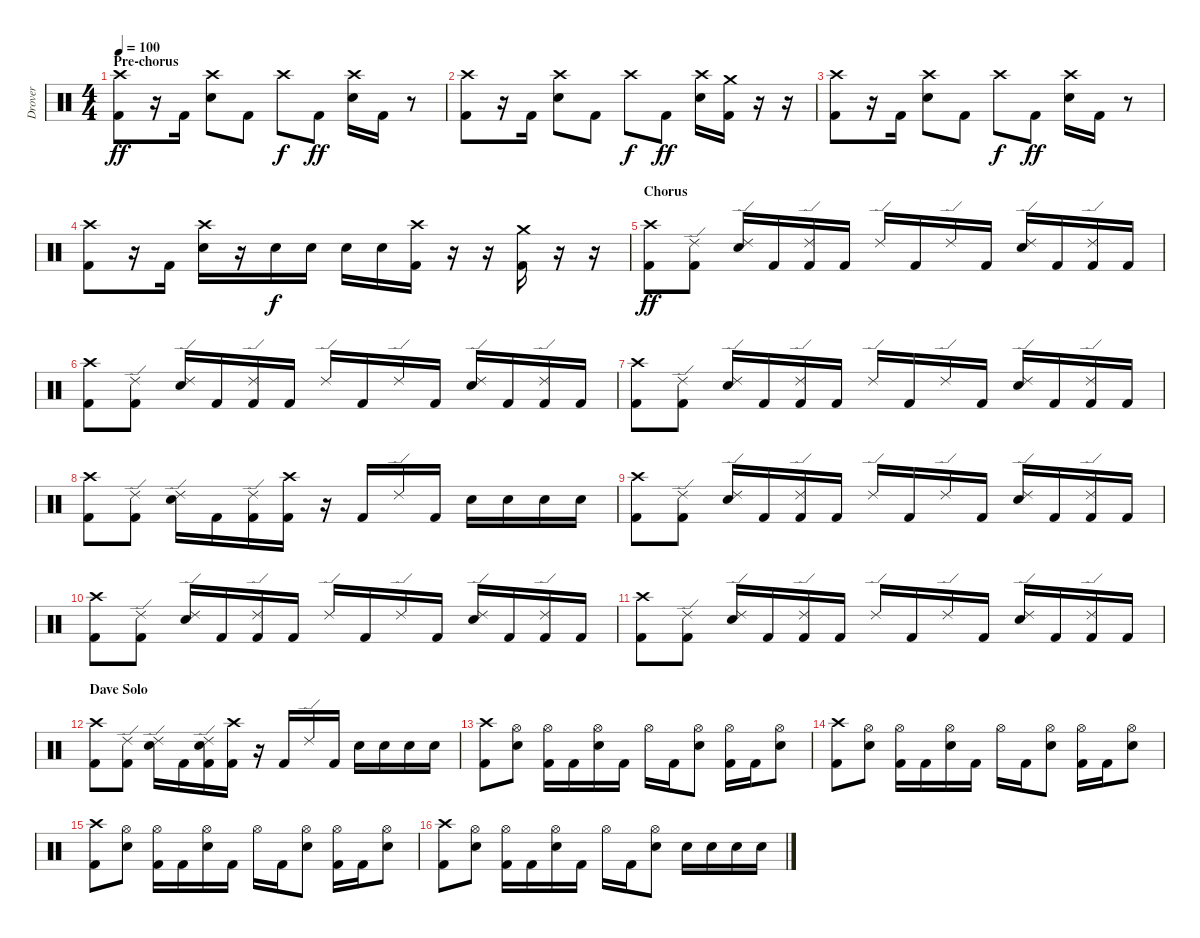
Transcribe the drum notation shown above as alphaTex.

\track ("Drover" "Drover") {instrument percussion}
\staff {score}
\articulation defaults
\ts (4 4)
\section ("" "Pre-chorus")
\tempo 100
\clef neutral
\ks c
("Crash high (hit)" "Kick (hit) 2").8{dy ff} r.16 "Kick (hit) 2".16 ("Crash high (hit)" "Electric Snare (hit)").8 "Kick (hit) 2".8 "Crash high (hit)".8{dy f} "Kick (hit) 2".8{dy ff} ("Crash high (hit)" "Electric Snare (hit)").16 "Kick (hit) 2".16 r.8 |
("Crash high (hit)" "Kick (hit) 2").8 r.16 "Kick (hit) 2".16 ("Crash high (hit)" "Electric Snare (hit)").8 "Kick (hit) 2".8 "Crash high (hit)".8{dy f} "Kick (hit) 2".8{dy ff} ("Crash high (hit)" "Electric Snare (hit)").16 ("Crash medium (hit)" "Kick (hit) 2").16 r.16 r.16 |
("Crash high (hit)" "Kick (hit) 2").8 r.16 "Kick (hit) 2".16 ("Crash high (hit)" "Electric Snare (hit)").8 "Kick (hit) 2".8 "Crash high (hit)".8{dy f} "Kick (hit) 2".8{dy ff} ("Crash high (hit)" "Electric Snare (hit)").16 "Kick (hit) 2".16 r.8 |
("Crash high (hit)" "Kick (hit) 2").8 r.16 "Kick (hit) 2".16 ("Crash high (hit)" "Electric Snare (hit)").16 r.16 "Electric Snare (hit)".16{dy f} "Electric Snare (hit)".16 "Electric Snare (hit)".16 "Electric Snare (hit)".16 ("Crash high (hit)" "Kick (hit) 2").16 r.16 r.16 ("Crash medium (hit)" "Kick (hit) 2").16 r.16 r.16 |
\section ("" "Chorus")
("Crash high (hit)" "Kick (hit) 2").8{dy ff} ("Ride (edge) 2" "Kick (hit) 2").8 ("Ride (edge) 2" "Electric Snare (hit)").16 "Kick (hit) 2".16 ("Ride (edge) 2" "Kick (hit) 2").16 "Kick (hit) 2".16 "Ride (edge) 2".16 "Kick (hit) 2".16 "Ride (edge) 2".16 "Kick (hit) 2".16 ("Ride (edge) 2" "Electric Snare (hit)").16 "Kick (hit) 2".16 ("Ride (edge) 2" "Kick (hit) 2").16 "Kick (hit) 2".16 |
("Crash high (hit)" "Kick (hit) 2").8 ("Ride (edge) 2" "Kick (hit) 2").8 ("Ride (edge) 2" "Electric Snare (hit)").16 "Kick (hit) 2".16 ("Ride (edge) 2" "Kick (hit) 2").16 "Kick (hit) 2".16 "Ride (edge) 2".16 "Kick (hit) 2".16 "Ride (edge) 2".16 "Kick (hit) 2".16 ("Ride (edge) 2" "Electric Snare (hit)").16 "Kick (hit) 2".16 ("Ride (edge) 2" "Kick (hit) 2").16 "Kick (hit) 2".16 |
("Crash high (hit)" "Kick (hit) 2").8 ("Ride (edge) 2" "Kick (hit) 2").8 ("Ride (edge) 2" "Electric Snare (hit)").16 "Kick (hit) 2".16 ("Ride (edge) 2" "Kick (hit) 2").16 "Kick (hit) 2".16 "Ride (edge) 2".16 "Kick (hit) 2".16 "Ride (edge) 2".16 "Kick (hit) 2".16 ("Ride (edge) 2" "Electric Snare (hit)").16 "Kick (hit) 2".16 ("Ride (edge) 2" "Kick (hit) 2").16 "Kick (hit) 2".16 |
("Crash high (hit)" "Kick (hit) 2").8 ("Ride (edge) 2" "Kick (hit) 2").8 ("Ride (edge) 2" "Electric Snare (hit)").16 "Kick (hit) 2".16 ("Ride (edge) 2" "Kick (hit) 2").16 ("Crash high (hit)" "Kick (hit) 2").16 r.16 "Kick (hit) 2".16 "Ride (edge) 2".16 "Kick (hit) 2".16 "Electric Snare (hit)".16 "Electric Snare (hit)".16 "Electric Snare (hit)".16 "Electric Snare (hit)".16 |
("Crash high (hit)" "Kick (hit) 2").8 ("Ride (edge) 2" "Kick (hit) 2").8 ("Ride (edge) 2" "Electric Snare (hit)").16 "Kick (hit) 2".16 ("Ride (edge) 2" "Kick (hit) 2").16 "Kick (hit) 2".16 "Ride (edge) 2".16 "Kick (hit) 2".16 "Ride (edge) 2".16 "Kick (hit) 2".16 ("Ride (edge) 2" "Electric Snare (hit)").16 "Kick (hit) 2".16 ("Ride (edge) 2" "Kick (hit) 2").16 "Kick (hit) 2".16 |
("Crash high (hit)" "Kick (hit) 2").8 ("Ride (edge) 2" "Kick (hit) 2").8 ("Ride (edge) 2" "Electric Snare (hit)").16 "Kick (hit) 2".16 ("Ride (edge) 2" "Kick (hit) 2").16 "Kick (hit) 2".16 "Ride (edge) 2".16 "Kick (hit) 2".16 "Ride (edge) 2".16 "Kick (hit) 2".16 ("Ride (edge) 2" "Electric Snare (hit)").16 "Kick (hit) 2".16 ("Ride (edge) 2" "Kick (hit) 2").16 "Kick (hit) 2".16 |
("Crash high (hit)" "Kick (hit) 2").8 ("Ride (edge) 2" "Kick (hit) 2").8 ("Ride (edge) 2" "Electric Snare (hit)").16 "Kick (hit) 2".16 ("Ride (edge) 2" "Kick (hit) 2").16 "Kick (hit) 2".16 "Ride (edge) 2".16 "Kick (hit) 2".16 "Ride (edge) 2".16 "Kick (hit) 2".16 ("Ride (edge) 2" "Electric Snare (hit)").16 "Kick (hit) 2".16 ("Ride (edge) 2" "Kick (hit) 2").16 "Kick (hit) 2".16 |
\section ("" "Dave Solo")
("Crash high (hit)" "Kick (hit) 2").8 ("Ride (edge) 2" "Kick (hit) 2").8 ("Ride (edge) 2" "Electric Snare (hit)").16 "Kick (hit) 2".16 ("Ride (edge) 2" "Electric Snare (hit)" "Kick (hit) 2").16 ("Crash high (hit)" "Kick (hit) 2").16 r.16 "Kick (hit) 2".16 "Ride (edge) 2".16 "Kick (hit) 2".16 "Electric Snare (hit)".16 "Electric Snare (hit)".16 "Electric Snare (hit)".16 "Electric Snare (hit)".16 |
("Crash high (hit)" "Kick (hit) 2").8 ("Hi-Hat (open)" "Electric Snare (hit)").8 ("Hi-Hat (open)" "Kick (hit) 2").16 "Kick (hit) 2".16 ("Hi-Hat (open)" "Electric Snare (hit)").16 "Kick (hit) 2".16 "Hi-Hat (open)".16 "Kick (hit) 2".16 ("Hi-Hat (open)" "Electric Snare (hit)").8 ("Hi-Hat (open)" "Kick (hit) 2").16 "Kick (hit) 2".16 ("Hi-Hat (open)" "Electric Snare (hit)").8 |
("Crash high (hit)" "Kick (hit) 2").8 ("Hi-Hat (open)" "Electric Snare (hit)").8 ("Hi-Hat (open)" "Kick (hit) 2").16 "Kick (hit) 2".16 ("Hi-Hat (open)" "Electric Snare (hit)").16 "Kick (hit) 2".16 "Hi-Hat (open)".16 "Kick (hit) 2".16 ("Hi-Hat (open)" "Electric Snare (hit)").8 ("Hi-Hat (open)" "Kick (hit) 2").16 "Kick (hit) 2".16 ("Hi-Hat (open)" "Electric Snare (hit)").8 |
("Crash high (hit)" "Kick (hit) 2").8 ("Hi-Hat (open)" "Electric Snare (hit)").8 ("Hi-Hat (open)" "Kick (hit) 2").16 "Kick (hit) 2".16 ("Hi-Hat (open)" "Electric Snare (hit)").16 "Kick (hit) 2".16 "Hi-Hat (open)".16 "Kick (hit) 2".16 ("Hi-Hat (open)" "Electric Snare (hit)").8 ("Hi-Hat (open)" "Kick (hit) 2").16 "Kick (hit) 2".16 ("Hi-Hat (open)" "Electric Snare (hit)").8 |
("Crash high (hit)" "Kick (hit) 2").8 ("Hi-Hat (open)" "Electric Snare (hit)").8 ("Hi-Hat (open)" "Kick (hit) 2").16 "Kick (hit) 2".16 ("Hi-Hat (open)" "Electric Snare (hit)").16 "Kick (hit) 2".16 "Hi-Hat (open)".16 "Kick (hit) 2".16 ("Hi-Hat (open)" "Electric Snare (hit)").8 "Electric Snare (hit)".16 "Electric Snare (hit)".16 "Electric Snare (hit)".16 "Electric Snare (hit)".16
